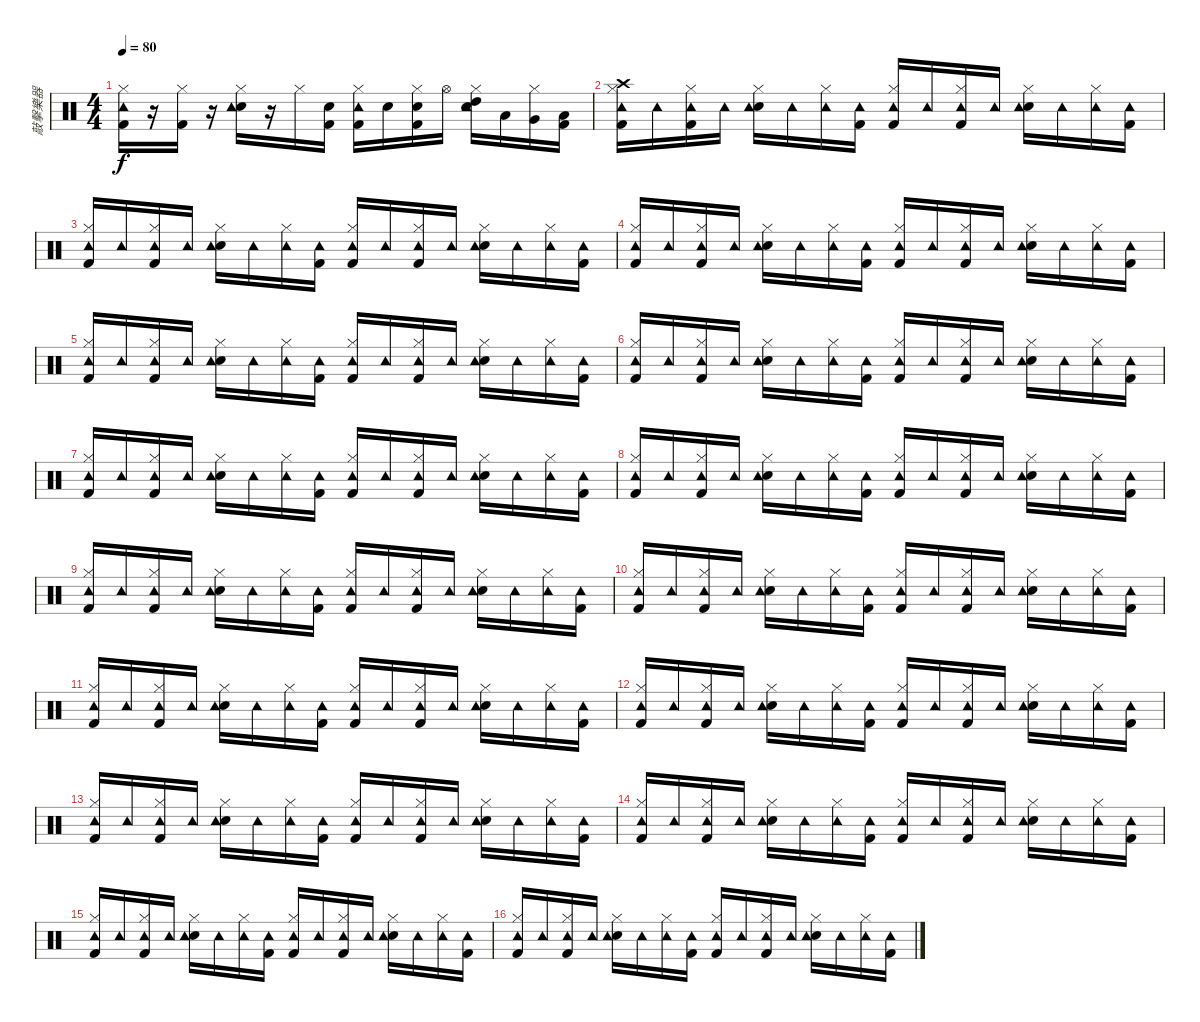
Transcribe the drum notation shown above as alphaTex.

\track ("敲擊樂器" "敲擊樂器") {instrument percussion}
\staff {score}
\articulation defaults
\ts (4 4)
\tempo 80
\clef neutral
\ks c
("Kick (hit) 2" "Hi-Hat (closed)" "Tambourine (hit)").16{dy f} r.16 ("Kick (hit) 2" "Hi-Hat (closed)").16 r.16 ("Snare (hit) 2" "Hi-Hat (closed)" "Tambourine (hit)").16 r.16 "Hi-Hat (closed)".16 ("Kick (hit) 2" "Snare (hit) 2").16 ("Kick (hit) 2" "Hi-Hat (closed)" "Tambourine (hit)").16 "Electric Snare (hit)".16 ("Kick (hit) 2" "Electric Snare (hit)" "Hi-Hat (closed)").16 "Hi-Hat (open)".16 ("High Tom (hit)" "Snare (hit) 2" "Hi-Hat (closed)" "Tambourine (hit)").16 "Low Tom (hit)".16 ("Very Low Tom (hit)" "Hi-Hat (closed)").16 ("Kick (hit) 2" "Low Floor Tom (hit)").16 |
("Kick (hit) 2" "Crash high (hit)" "Hi-Hat (closed)" "Tambourine (hit)").16 "Tambourine (hit)".16 ("Kick (hit) 2" "Hi-Hat (closed)" "Tambourine (hit)").16 "Tambourine (hit)".16 ("Snare (hit) 2" "Hi-Hat (closed)" "Tambourine (hit)").16 "Tambourine (hit)".16 ("Hi-Hat (closed)" "Tambourine (hit)").16 ("Kick (hit) 2" "Tambourine (hit)").16 ("Kick (hit) 2" "Hi-Hat (closed)" "Tambourine (hit)").16 "Tambourine (hit)".16 ("Kick (hit) 2" "Hi-Hat (closed)" "Tambourine (hit)").16 "Tambourine (hit)".16 ("Snare (hit) 2" "Hi-Hat (closed)" "Tambourine (hit)").16 "Tambourine (hit)".16 ("Hi-Hat (closed)" "Tambourine (hit)").16 ("Kick (hit) 2" "Tambourine (hit)").16 |
("Kick (hit) 2" "Hi-Hat (closed)" "Tambourine (hit)").16 "Tambourine (hit)".16 ("Kick (hit) 2" "Hi-Hat (closed)" "Tambourine (hit)").16 "Tambourine (hit)".16 ("Snare (hit) 2" "Hi-Hat (closed)" "Tambourine (hit)").16 "Tambourine (hit)".16 ("Hi-Hat (closed)" "Tambourine (hit)").16 ("Kick (hit) 2" "Tambourine (hit)").16 ("Kick (hit) 2" "Hi-Hat (closed)" "Tambourine (hit)").16 "Tambourine (hit)".16 ("Kick (hit) 2" "Hi-Hat (closed)" "Tambourine (hit)").16 "Tambourine (hit)".16 ("Snare (hit) 2" "Hi-Hat (closed)" "Tambourine (hit)").16 "Tambourine (hit)".16 ("Hi-Hat (closed)" "Tambourine (hit)").16 ("Kick (hit) 2" "Tambourine (hit)").16 |
("Kick (hit) 2" "Hi-Hat (closed)" "Tambourine (hit)").16 "Tambourine (hit)".16 ("Kick (hit) 2" "Hi-Hat (closed)" "Tambourine (hit)").16 "Tambourine (hit)".16 ("Snare (hit) 2" "Hi-Hat (closed)" "Tambourine (hit)").16 "Tambourine (hit)".16 ("Hi-Hat (closed)" "Tambourine (hit)").16 ("Kick (hit) 2" "Tambourine (hit)").16 ("Kick (hit) 2" "Hi-Hat (closed)" "Tambourine (hit)").16 "Tambourine (hit)".16 ("Kick (hit) 2" "Hi-Hat (closed)" "Tambourine (hit)").16 "Tambourine (hit)".16 ("Snare (hit) 2" "Hi-Hat (closed)" "Tambourine (hit)").16 "Tambourine (hit)".16 ("Hi-Hat (closed)" "Tambourine (hit)").16 ("Kick (hit) 2" "Tambourine (hit)").16 |
("Kick (hit) 2" "Hi-Hat (closed)" "Tambourine (hit)").16 "Tambourine (hit)".16 ("Kick (hit) 2" "Hi-Hat (closed)" "Tambourine (hit)").16 "Tambourine (hit)".16 ("Snare (hit) 2" "Hi-Hat (closed)" "Tambourine (hit)").16 "Tambourine (hit)".16 ("Hi-Hat (closed)" "Tambourine (hit)").16 ("Kick (hit) 2" "Tambourine (hit)").16 ("Kick (hit) 2" "Hi-Hat (closed)" "Tambourine (hit)").16 "Tambourine (hit)".16 ("Kick (hit) 2" "Hi-Hat (closed)" "Tambourine (hit)").16 "Tambourine (hit)".16 ("Snare (hit) 2" "Hi-Hat (closed)" "Tambourine (hit)").16 "Tambourine (hit)".16 ("Hi-Hat (closed)" "Tambourine (hit)").16 ("Kick (hit) 2" "Tambourine (hit)").16 |
("Kick (hit) 2" "Hi-Hat (closed)" "Tambourine (hit)").16 "Tambourine (hit)".16 ("Kick (hit) 2" "Hi-Hat (closed)" "Tambourine (hit)").16 "Tambourine (hit)".16 ("Snare (hit) 2" "Hi-Hat (closed)" "Tambourine (hit)").16 "Tambourine (hit)".16 ("Hi-Hat (closed)" "Tambourine (hit)").16 ("Kick (hit) 2" "Tambourine (hit)").16 ("Kick (hit) 2" "Hi-Hat (closed)" "Tambourine (hit)").16 "Tambourine (hit)".16 ("Kick (hit) 2" "Hi-Hat (closed)" "Tambourine (hit)").16 "Tambourine (hit)".16 ("Snare (hit) 2" "Hi-Hat (closed)" "Tambourine (hit)").16 "Tambourine (hit)".16 ("Hi-Hat (closed)" "Tambourine (hit)").16 ("Kick (hit) 2" "Tambourine (hit)").16 |
("Kick (hit) 2" "Hi-Hat (closed)" "Tambourine (hit)").16 "Tambourine (hit)".16 ("Kick (hit) 2" "Hi-Hat (closed)" "Tambourine (hit)").16 "Tambourine (hit)".16 ("Snare (hit) 2" "Hi-Hat (closed)" "Tambourine (hit)").16 "Tambourine (hit)".16 ("Hi-Hat (closed)" "Tambourine (hit)").16 ("Kick (hit) 2" "Tambourine (hit)").16 ("Kick (hit) 2" "Hi-Hat (closed)" "Tambourine (hit)").16 "Tambourine (hit)".16 ("Kick (hit) 2" "Hi-Hat (closed)" "Tambourine (hit)").16 "Tambourine (hit)".16 ("Snare (hit) 2" "Hi-Hat (closed)" "Tambourine (hit)").16 "Tambourine (hit)".16 ("Hi-Hat (closed)" "Tambourine (hit)").16 ("Kick (hit) 2" "Tambourine (hit)").16 |
("Kick (hit) 2" "Hi-Hat (closed)" "Tambourine (hit)").16 "Tambourine (hit)".16 ("Kick (hit) 2" "Hi-Hat (closed)" "Tambourine (hit)").16 "Tambourine (hit)".16 ("Snare (hit) 2" "Hi-Hat (closed)" "Tambourine (hit)").16 "Tambourine (hit)".16 ("Hi-Hat (closed)" "Tambourine (hit)").16 ("Kick (hit) 2" "Tambourine (hit)").16 ("Kick (hit) 2" "Hi-Hat (closed)" "Tambourine (hit)").16 "Tambourine (hit)".16 ("Kick (hit) 2" "Hi-Hat (closed)" "Tambourine (hit)").16 "Tambourine (hit)".16 ("Snare (hit) 2" "Hi-Hat (closed)" "Tambourine (hit)").16 "Tambourine (hit)".16 ("Hi-Hat (closed)" "Tambourine (hit)").16 ("Kick (hit) 2" "Tambourine (hit)").16 |
("Kick (hit) 2" "Hi-Hat (closed)" "Tambourine (hit)").16 "Tambourine (hit)".16 ("Kick (hit) 2" "Hi-Hat (closed)" "Tambourine (hit)").16 "Tambourine (hit)".16 ("Snare (hit) 2" "Hi-Hat (closed)" "Tambourine (hit)").16 "Tambourine (hit)".16 ("Hi-Hat (closed)" "Tambourine (hit)").16 ("Kick (hit) 2" "Tambourine (hit)").16 ("Kick (hit) 2" "Hi-Hat (closed)" "Tambourine (hit)").16 "Tambourine (hit)".16 ("Kick (hit) 2" "Hi-Hat (closed)" "Tambourine (hit)").16 "Tambourine (hit)".16 ("Snare (hit) 2" "Hi-Hat (closed)" "Tambourine (hit)").16 "Tambourine (hit)".16 ("Hi-Hat (closed)" "Tambourine (hit)").16 ("Kick (hit) 2" "Tambourine (hit)").16 |
("Kick (hit) 2" "Hi-Hat (closed)" "Tambourine (hit)").16 "Tambourine (hit)".16 ("Kick (hit) 2" "Hi-Hat (closed)" "Tambourine (hit)").16 "Tambourine (hit)".16 ("Snare (hit) 2" "Hi-Hat (closed)" "Tambourine (hit)").16 "Tambourine (hit)".16 ("Hi-Hat (closed)" "Tambourine (hit)").16 ("Kick (hit) 2" "Tambourine (hit)").16 ("Kick (hit) 2" "Hi-Hat (closed)" "Tambourine (hit)").16 "Tambourine (hit)".16 ("Kick (hit) 2" "Hi-Hat (closed)" "Tambourine (hit)").16 "Tambourine (hit)".16 ("Snare (hit) 2" "Hi-Hat (closed)" "Tambourine (hit)").16 "Tambourine (hit)".16 ("Hi-Hat (closed)" "Tambourine (hit)").16 ("Kick (hit) 2" "Tambourine (hit)").16 |
("Kick (hit) 2" "Hi-Hat (closed)" "Tambourine (hit)").16 "Tambourine (hit)".16 ("Kick (hit) 2" "Hi-Hat (closed)" "Tambourine (hit)").16 "Tambourine (hit)".16 ("Snare (hit) 2" "Hi-Hat (closed)" "Tambourine (hit)").16 "Tambourine (hit)".16 ("Hi-Hat (closed)" "Tambourine (hit)").16 ("Kick (hit) 2" "Tambourine (hit)").16 ("Kick (hit) 2" "Hi-Hat (closed)" "Tambourine (hit)").16 "Tambourine (hit)".16 ("Kick (hit) 2" "Hi-Hat (closed)" "Tambourine (hit)").16 "Tambourine (hit)".16 ("Snare (hit) 2" "Hi-Hat (closed)" "Tambourine (hit)").16 "Tambourine (hit)".16 ("Hi-Hat (closed)" "Tambourine (hit)").16 ("Kick (hit) 2" "Tambourine (hit)").16 |
("Kick (hit) 2" "Hi-Hat (closed)" "Tambourine (hit)").16 "Tambourine (hit)".16 ("Kick (hit) 2" "Hi-Hat (closed)" "Tambourine (hit)").16 "Tambourine (hit)".16 ("Snare (hit) 2" "Hi-Hat (closed)" "Tambourine (hit)").16 "Tambourine (hit)".16 ("Hi-Hat (closed)" "Tambourine (hit)").16 ("Kick (hit) 2" "Tambourine (hit)").16 ("Kick (hit) 2" "Hi-Hat (closed)" "Tambourine (hit)").16 "Tambourine (hit)".16 ("Kick (hit) 2" "Hi-Hat (closed)" "Tambourine (hit)").16 "Tambourine (hit)".16 ("Snare (hit) 2" "Hi-Hat (closed)" "Tambourine (hit)").16 "Tambourine (hit)".16 ("Hi-Hat (closed)" "Tambourine (hit)").16 ("Kick (hit) 2" "Tambourine (hit)").16 |
("Kick (hit) 2" "Hi-Hat (closed)" "Tambourine (hit)").16 "Tambourine (hit)".16 ("Kick (hit) 2" "Hi-Hat (closed)" "Tambourine (hit)").16 "Tambourine (hit)".16 ("Snare (hit) 2" "Hi-Hat (closed)" "Tambourine (hit)").16 "Tambourine (hit)".16 ("Hi-Hat (closed)" "Tambourine (hit)").16 ("Kick (hit) 2" "Tambourine (hit)").16 ("Kick (hit) 2" "Hi-Hat (closed)" "Tambourine (hit)").16 "Tambourine (hit)".16 ("Kick (hit) 2" "Hi-Hat (closed)" "Tambourine (hit)").16 "Tambourine (hit)".16 ("Snare (hit) 2" "Hi-Hat (closed)" "Tambourine (hit)").16 "Tambourine (hit)".16 ("Hi-Hat (closed)" "Tambourine (hit)").16 ("Kick (hit) 2" "Tambourine (hit)").16 |
("Kick (hit) 2" "Hi-Hat (closed)" "Tambourine (hit)").16 "Tambourine (hit)".16 ("Kick (hit) 2" "Hi-Hat (closed)" "Tambourine (hit)").16 "Tambourine (hit)".16 ("Snare (hit) 2" "Hi-Hat (closed)" "Tambourine (hit)").16 "Tambourine (hit)".16 ("Hi-Hat (closed)" "Tambourine (hit)").16 ("Kick (hit) 2" "Tambourine (hit)").16 ("Kick (hit) 2" "Hi-Hat (closed)" "Tambourine (hit)").16 "Tambourine (hit)".16 ("Kick (hit) 2" "Hi-Hat (closed)" "Tambourine (hit)").16 "Tambourine (hit)".16 ("Snare (hit) 2" "Hi-Hat (closed)" "Tambourine (hit)").16 "Tambourine (hit)".16 ("Hi-Hat (closed)" "Tambourine (hit)").16 ("Kick (hit) 2" "Tambourine (hit)").16 |
("Kick (hit) 2" "Hi-Hat (closed)" "Tambourine (hit)").16 "Tambourine (hit)".16 ("Kick (hit) 2" "Hi-Hat (closed)" "Tambourine (hit)").16 "Tambourine (hit)".16 ("Snare (hit) 2" "Hi-Hat (closed)" "Tambourine (hit)").16 "Tambourine (hit)".16 ("Hi-Hat (closed)" "Tambourine (hit)").16 ("Kick (hit) 2" "Tambourine (hit)").16 ("Kick (hit) 2" "Hi-Hat (closed)" "Tambourine (hit)").16 "Tambourine (hit)".16 ("Kick (hit) 2" "Hi-Hat (closed)" "Tambourine (hit)").16 "Tambourine (hit)".16 ("Snare (hit) 2" "Hi-Hat (closed)" "Tambourine (hit)").16 "Tambourine (hit)".16 ("Hi-Hat (closed)" "Tambourine (hit)").16 ("Kick (hit) 2" "Tambourine (hit)").16 |
("Kick (hit) 2" "Hi-Hat (closed)" "Tambourine (hit)").16 "Tambourine (hit)".16 ("Kick (hit) 2" "Hi-Hat (closed)" "Tambourine (hit)").16 "Tambourine (hit)".16 ("Snare (hit) 2" "Hi-Hat (closed)" "Tambourine (hit)").16 "Tambourine (hit)".16 ("Hi-Hat (closed)" "Tambourine (hit)").16 ("Kick (hit) 2" "Tambourine (hit)").16 ("Kick (hit) 2" "Hi-Hat (closed)" "Tambourine (hit)").16 "Tambourine (hit)".16 ("Kick (hit) 2" "Hi-Hat (closed)" "Tambourine (hit)").16 "Tambourine (hit)".16 ("Snare (hit) 2" "Hi-Hat (closed)" "Tambourine (hit)").16 "Tambourine (hit)".16 ("Hi-Hat (closed)" "Tambourine (hit)").16 ("Kick (hit) 2" "Tambourine (hit)").16
